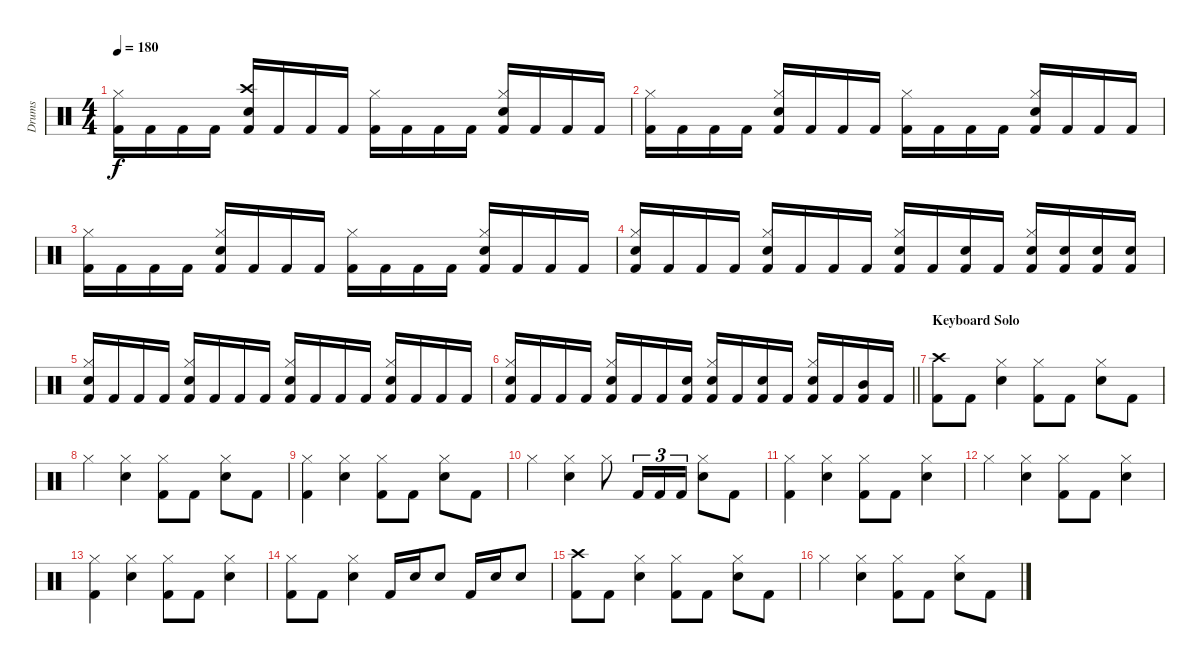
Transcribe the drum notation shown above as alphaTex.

\track ("Drums " "Drums ") {instrument percussion}
\staff {score}
\articulation defaults
\ts (4 4)
\tempo 180
\clef neutral
\ks c
("Kick (hit) 2" "Hi-Hat (closed)").16{dy f} "Kick (hit) 2".16 "Kick (hit) 2".16 "Kick (hit) 2".16 ("Kick (hit) 2" "Crash high (hit)" "Electric Snare (hit)").16 "Kick (hit) 2".16 "Kick (hit) 2".16 "Kick (hit) 2".16 ("Kick (hit) 2" "Hi-Hat (closed)").16 "Kick (hit) 2".16 "Kick (hit) 2".16 "Kick (hit) 2".16 ("Kick (hit) 2" "Hi-Hat (closed)" "Electric Snare (hit)").16 "Kick (hit) 2".16 "Kick (hit) 2".16 "Kick (hit) 2".16 |
("Kick (hit) 2" "Hi-Hat (closed)").16 "Kick (hit) 2".16 "Kick (hit) 2".16 "Kick (hit) 2".16 ("Kick (hit) 2" "Hi-Hat (closed)" "Electric Snare (hit)").16 "Kick (hit) 2".16 "Kick (hit) 2".16 "Kick (hit) 2".16 ("Kick (hit) 2" "Hi-Hat (closed)").16 "Kick (hit) 2".16 "Kick (hit) 2".16 "Kick (hit) 2".16 ("Kick (hit) 2" "Hi-Hat (closed)" "Electric Snare (hit)").16 "Kick (hit) 2".16 "Kick (hit) 2".16 "Kick (hit) 2".16 |
("Kick (hit) 2" "Hi-Hat (closed)").16 "Kick (hit) 2".16 "Kick (hit) 2".16 "Kick (hit) 2".16 ("Kick (hit) 2" "Hi-Hat (closed)" "Electric Snare (hit)").16 "Kick (hit) 2".16 "Kick (hit) 2".16 "Kick (hit) 2".16 ("Kick (hit) 2" "Hi-Hat (closed)").16 "Kick (hit) 2".16 "Kick (hit) 2".16 "Kick (hit) 2".16 ("Kick (hit) 2" "Hi-Hat (closed)" "Electric Snare (hit)").16 "Kick (hit) 2".16 "Kick (hit) 2".16 "Kick (hit) 2".16 |
("Kick (hit) 2" "Hi-Hat (closed)" "Electric Snare (hit)").16 "Kick (hit) 2".16 "Kick (hit) 2".16 "Kick (hit) 2".16 ("Kick (hit) 2" "Hi-Hat (closed)" "Electric Snare (hit)").16 "Kick (hit) 2".16 "Kick (hit) 2".16 "Kick (hit) 2".16 ("Kick (hit) 2" "Hi-Hat (closed)" "Electric Snare (hit)").16 "Kick (hit) 2".16 ("Kick (hit) 2" "Electric Snare (hit)").16 "Kick (hit) 2".16 ("Kick (hit) 2" "Hi-Hat (closed)" "Electric Snare (hit)").16 ("Kick (hit) 2" "Electric Snare (hit)").16 ("Kick (hit) 2" "Electric Snare (hit)").16 ("Kick (hit) 2" "Electric Snare (hit)").16 |
("Kick (hit) 2" "Hi-Hat (closed)" "Electric Snare (hit)").16 "Kick (hit) 2".16 "Kick (hit) 2".16 "Kick (hit) 2".16 ("Kick (hit) 2" "Hi-Hat (closed)" "Electric Snare (hit)").16 "Kick (hit) 2".16 "Kick (hit) 2".16 "Kick (hit) 2".16 ("Kick (hit) 2" "Hi-Hat (closed)" "Electric Snare (hit)").16 "Kick (hit) 2".16 "Kick (hit) 2".16 "Kick (hit) 2".16 ("Kick (hit) 2" "Hi-Hat (closed)" "Electric Snare (hit)").16 "Kick (hit) 2".16 "Kick (hit) 2".16 "Kick (hit) 2".16 |
\barLineRight lightlight
("Kick (hit) 2" "Hi-Hat (closed)" "Electric Snare (hit)").16 "Kick (hit) 2".16 "Kick (hit) 2".16 "Kick (hit) 2".16 ("Kick (hit) 2" "Hi-Hat (closed)" "Electric Snare (hit)").16 "Kick (hit) 2".16 "Kick (hit) 2".16 ("Kick (hit) 2" "Electric Snare (hit)").16 ("Kick (hit) 2" "Hi-Hat (closed)" "Electric Snare (hit)").16 "Kick (hit) 2".16 ("Kick (hit) 2" "Electric Snare (hit)").16 "Kick (hit) 2".16 ("Kick (hit) 2" "Hi-Hat (closed)" "Electric Snare (hit)").16 "Kick (hit) 2".16 ("Kick (hit) 2" "Mid Tom (hit)").16 "Kick (hit) 2".16 |
\section ("" "Keyboard Solo")
("Kick (hit) 2" "Crash high (hit)").8 "Kick (hit) 2".8 ("Hi-Hat (closed)" "Electric Snare (hit)").4 ("Kick (hit) 2" "Hi-Hat (closed)").8 "Kick (hit) 2".8 ("Hi-Hat (closed)" "Electric Snare (hit)").8 "Kick (hit) 2".8 |
"Hi-Hat (closed)".4 ("Hi-Hat (closed)" "Electric Snare (hit)").4 ("Kick (hit) 2" "Hi-Hat (closed)").8 "Kick (hit) 2".8 ("Hi-Hat (closed)" "Electric Snare (hit)").8 "Kick (hit) 2".8 |
("Kick (hit) 2" "Hi-Hat (closed)").4 ("Hi-Hat (closed)" "Electric Snare (hit)").4 ("Kick (hit) 2" "Hi-Hat (closed)").8 "Kick (hit) 2".8 ("Hi-Hat (closed)" "Electric Snare (hit)").8 "Kick (hit) 2".8 |
"Hi-Hat (closed)".4 ("Hi-Hat (closed)" "Electric Snare (hit)").4 "Hi-Hat (closed)".8 "Kick (hit) 2".16{tu (3 2)} "Kick (hit) 2".16{tu (3 2)} "Kick (hit) 2".16{tu (3 2)} ("Hi-Hat (closed)" "Electric Snare (hit)").8 "Kick (hit) 2".8 |
("Kick (hit) 2" "Hi-Hat (closed)").4 ("Hi-Hat (closed)" "Electric Snare (hit)").4 ("Kick (hit) 2" "Hi-Hat (closed)").8 "Kick (hit) 2".8 ("Hi-Hat (closed)" "Electric Snare (hit)").4 |
"Hi-Hat (closed)".4 ("Hi-Hat (closed)" "Electric Snare (hit)").4 ("Kick (hit) 2" "Hi-Hat (closed)").8 "Kick (hit) 2".8 ("Hi-Hat (closed)" "Electric Snare (hit)").4 |
("Kick (hit) 2" "Hi-Hat (closed)").4 ("Hi-Hat (closed)" "Electric Snare (hit)").4 ("Kick (hit) 2" "Hi-Hat (closed)").8 "Kick (hit) 2".8 ("Hi-Hat (closed)" "Electric Snare (hit)").4 |
("Kick (hit) 2" "Hi-Hat (closed)").8 "Kick (hit) 2".8 ("Hi-Hat (closed)" "Electric Snare (hit)").4 "Kick (hit) 2".16 "Electric Snare (hit)".16 "Electric Snare (hit)".8 "Kick (hit) 2".16 "Electric Snare (hit)".16 "Electric Snare (hit)".8 |
("Kick (hit) 2" "Crash high (hit)").8 "Kick (hit) 2".8 ("Hi-Hat (closed)" "Electric Snare (hit)").4 ("Kick (hit) 2" "Hi-Hat (closed)").8 "Kick (hit) 2".8 ("Hi-Hat (closed)" "Electric Snare (hit)").8 "Kick (hit) 2".8 |
"Hi-Hat (closed)".4 ("Hi-Hat (closed)" "Electric Snare (hit)").4 ("Kick (hit) 2" "Hi-Hat (closed)").8 "Kick (hit) 2".8 ("Hi-Hat (closed)" "Electric Snare (hit)").8 "Kick (hit) 2".8
